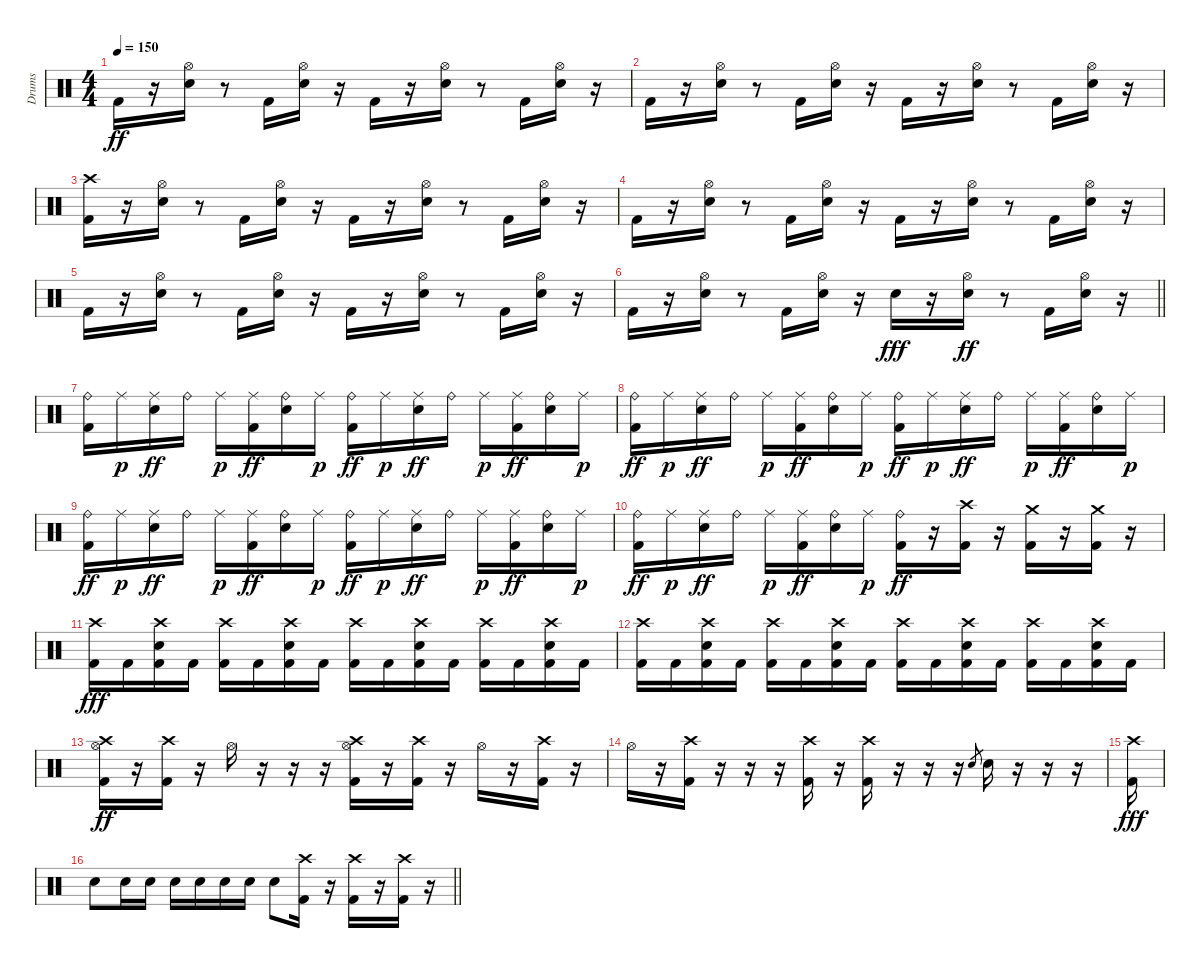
\track ("Drums" "Drums") {instrument percussion}
\staff {score}
\articulation defaults
\ts (4 4)
\tempo 150
\clef neutral
\ks c "Kick (hit) 2".16{dy ff}
r.16 ("Hi-Hat (open)" "Snare (hit) 2").16 r.8 "Kick (hit) 2".16 ("Hi-Hat (open)" "Snare (hit) 2").16 r.16 "Kick (hit) 2".16 r.16 ("Hi-Hat (open)" "Snare (hit) 2").16 r.8 "Kick (hit) 2".16 ("Hi-Hat (open)" "Snare (hit) 2").16 r.16 |
"Kick (hit) 2".16 r.16 ("Hi-Hat (open)" "Snare (hit) 2").16 r.8 "Kick (hit) 2".16 ("Hi-Hat (open)" "Snare (hit) 2").16 r.16 "Kick (hit) 2".16 r.16 ("Hi-Hat (open)" "Snare (hit) 2").16 r.8 "Kick (hit) 2".16 ("Hi-Hat (open)" "Snare (hit) 2").16 r.16 |
("Crash high (hit)" "Kick (hit) 2").16 r.16 ("Hi-Hat (open)" "Snare (hit) 2").16 r.8 "Kick (hit) 2".16 ("Hi-Hat (open)" "Snare (hit) 2").16 r.16 "Kick (hit) 2".16 r.16 ("Hi-Hat (open)" "Snare (hit) 2").16 r.8 "Kick (hit) 2".16 ("Hi-Hat (open)" "Snare (hit) 2").16 r.16 |
"Kick (hit) 2".16 r.16 ("Hi-Hat (open)" "Snare (hit) 2").16 r.8 "Kick (hit) 2".16 ("Hi-Hat (open)" "Snare (hit) 2").16 r.16 "Kick (hit) 2".16 r.16 ("Hi-Hat (open)" "Snare (hit) 2").16 r.8 "Kick (hit) 2".16 ("Hi-Hat (open)" "Snare (hit) 2").16 r.16 |
"Kick (hit) 2".16 r.16 ("Hi-Hat (open)" "Snare (hit) 2").16 r.8 "Kick (hit) 2".16 ("Hi-Hat (open)" "Snare (hit) 2").16 r.16 "Kick (hit) 2".16 r.16 ("Hi-Hat (open)" "Snare (hit) 2").16 r.8 "Kick (hit) 2".16 ("Hi-Hat (open)" "Snare (hit) 2").16 r.16 |
\barLineRight lightlight "Kick (hit) 2".16
r.16 ("Hi-Hat (open)" "Snare (hit) 2").16 r.8 "Kick (hit) 2".16 ("Hi-Hat (open)" "Snare (hit) 2").16 r.16 "Snare (hit) 2".16{dy fff} r.16 ("Hi-Hat (open)" "Snare (hit) 2").16{dy ff} r.8 "Kick (hit) 2".16 ("Hi-Hat (open)" "Snare (hit) 2").16 r.16 |
("Ride (bell)" "Kick (hit) 2").16 "Ride (middle)".16{dy p} ("Ride (middle)" "Snare (hit) 2").16{dy ff} "Ride (bell)".16 "Ride (middle)".16{dy p} ("Ride (middle)" "Kick (hit) 2").16{dy ff} ("Ride (bell)" "Snare (hit) 2").16 "Ride (middle)".16{dy p} ("Ride (bell)" "Kick (hit) 2").16{dy ff} "Ride (middle)".16{dy p} ("Ride (middle)" "Snare (hit) 2").16{dy ff} "Ride (bell)".16 "Ride (middle)".16{dy p} ("Ride (middle)" "Kick (hit) 2").16{dy ff} ("Ride (bell)" "Snare (hit) 2").16 "Ride (middle)".16{dy p} |
("Ride (bell)" "Kick (hit) 2").16{dy ff} "Ride (middle)".16{dy p} ("Ride (middle)" "Snare (hit) 2").16{dy ff} "Ride (bell)".16 "Ride (middle)".16{dy p} ("Ride (middle)" "Kick (hit) 2").16{dy ff} ("Ride (bell)" "Snare (hit) 2").16 "Ride (middle)".16{dy p} ("Ride (bell)" "Kick (hit) 2").16{dy ff} "Ride (middle)".16{dy p} ("Ride (middle)" "Snare (hit) 2").16{dy ff} "Ride (bell)".16 "Ride (middle)".16{dy p} ("Ride (middle)" "Kick (hit) 2").16{dy ff} ("Ride (bell)" "Snare (hit) 2").16 "Ride (middle)".16{dy p} |
("Ride (bell)" "Kick (hit) 2").16{dy ff} "Ride (middle)".16{dy p} ("Ride (middle)" "Snare (hit) 2").16{dy ff} "Ride (bell)".16 "Ride (middle)".16{dy p} ("Ride (middle)" "Kick (hit) 2").16{dy ff} ("Ride (bell)" "Snare (hit) 2").16 "Ride (middle)".16{dy p} ("Ride (bell)" "Kick (hit) 2").16{dy ff} "Ride (middle)".16{dy p} ("Ride (middle)" "Snare (hit) 2").16{dy ff} "Ride (bell)".16 "Ride (middle)".16{dy p} ("Ride (middle)" "Kick (hit) 2").16{dy ff} ("Ride (bell)" "Snare (hit) 2").16 "Ride (middle)".16{dy p} |
("Ride (bell)" "Kick (hit) 2").16{dy ff} "Ride (middle)".16{dy p} ("Ride (middle)" "Snare (hit) 2").16{dy ff} "Ride (bell)".16 "Ride (middle)".16{dy p} ("Ride (middle)" "Kick (hit) 2").16{dy ff} ("Ride (bell)" "Snare (hit) 2").16 "Ride (middle)".16{dy p} ("Ride (bell)" "Kick (hit) 2").16{dy ff} r.16 ("Crash high (hit)" "Kick (hit) 2").16 r.16 ("Crash medium (hit)" "Kick (hit) 2").16 r.16 ("Crash medium (hit)" "Kick (hit) 2").16 r.16 |
("Crash high (hit)" "Kick (hit) 2").16{dy fff} "Kick (hit) 2".16 ("Crash high (hit)" "Electric Snare (hit)" "Kick (hit) 2").16 "Kick (hit) 2".16 ("Crash high (hit)" "Kick (hit) 2").16 "Kick (hit) 2".16 ("Crash high (hit)" "Electric Snare (hit)" "Kick (hit) 2").16 "Kick (hit) 2".16 ("Crash high (hit)" "Kick (hit) 2").16 "Kick (hit) 2".16 ("Crash high (hit)" "Electric Snare (hit)" "Kick (hit) 2").16 "Kick (hit) 2".16 ("Crash high (hit)" "Kick (hit) 2").16 "Kick (hit) 2".16 ("Crash high (hit)" "Electric Snare (hit)" "Kick (hit) 2").16 "Kick (hit) 2".16 |
("Crash high (hit)" "Kick (hit) 2").16 "Kick (hit) 2".16 ("Crash high (hit)" "Electric Snare (hit)" "Kick (hit) 2").16 "Kick (hit) 2".16 ("Crash high (hit)" "Kick (hit) 2").16 "Kick (hit) 2".16 ("Crash high (hit)" "Electric Snare (hit)" "Kick (hit) 2").16 "Kick (hit) 2".16 ("Crash high (hit)" "Kick (hit) 2").16 "Kick (hit) 2".16 ("Crash high (hit)" "Electric Snare (hit)" "Kick (hit) 2").16 "Kick (hit) 2".16 ("Crash high (hit)" "Kick (hit) 2").16 "Kick (hit) 2".16 ("Crash high (hit)" "Electric Snare (hit)" "Kick (hit) 2").16 "Kick (hit) 2".16 |
("Crash high (hit)" "Hi-Hat (open)" "Kick (hit) 2").16{dy ff} r.16 ("Crash high (hit)" "Kick (hit) 2").16 r.16 "Hi-Hat (open)".16 r.16 r.16 r.16 ("Crash high (hit)" "Hi-Hat (open)" "Kick (hit) 2").16 r.16 ("Crash high (hit)" "Kick (hit) 2").16 r.16 "Hi-Hat (open)".16 r.16 ("Crash high (hit)" "Kick (hit) 2").16 r.16 |
"Hi-Hat (open)".16 r.16 ("Crash high (hit)" "Kick (hit) 2").16 r.16 r.16 r.16 ("Crash high (hit)" "Kick (hit) 2").16 r.16 ("Crash high (hit)" "Kick (hit) 2").16 r.16 r.16 r.16 "Snare (hit) 2".8{gr} "Snare (hit) 2".16 r.16 r.16 r.16 |
("Crash high (hit)" "Kick (hit) 2").16{dy fff} |
\barLineRight lightlight "Electric Snare (hit)".8 "Electric Snare (hit)".16 "Electric Snare (hit)".16 "Electric Snare (hit)".16 "Electric Snare (hit)".16 "Electric Snare (hit)".16 "Electric Snare (hit)".16 "Electric Snare (hit)".8
("Crash high (hit)" "Kick (hit) 2").16 r.16 ("Crash high (hit)" "Kick (hit) 2").16 r.16 ("Crash high (hit)" "Kick (hit) 2").16 r.16
